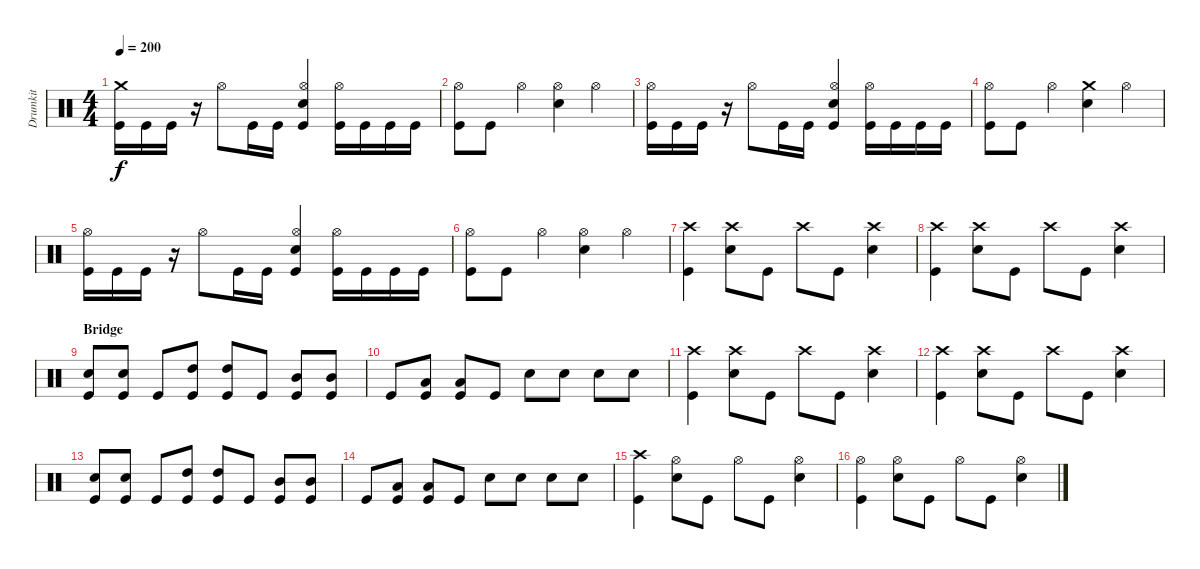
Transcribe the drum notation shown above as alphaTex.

\track ("Drumkit" "Drumkit") {instrument percussion}
\staff {score}
\articulation defaults
\ts (4 4)
\tempo 200
\clef neutral
\ks c
("Crash medium (hit)" "Kick (hit)").16{dy f} "Kick (hit)".16 "Kick (hit)".16 r.16 "Hi-Hat (open)".8 "Kick (hit)".16 "Kick (hit)".16 ("Hi-Hat (open)" "Snare (hit) 2" "Kick (hit)").4 ("Kick (hit)" "Hi-Hat (open)").16 "Kick (hit)".16 "Kick (hit)".16 "Kick (hit)".16 |
("Hi-Hat (open)" "Kick (hit)").8 "Kick (hit)".8 "Hi-Hat (open)".4 ("Hi-Hat (open)" "Snare (hit) 2").4 "Hi-Hat (open)".4 |
("Kick (hit)" "Hi-Hat (open)").16 "Kick (hit)".16 "Kick (hit)".16 r.16 "Hi-Hat (open)".8 "Kick (hit)".16 "Kick (hit)".16 ("Hi-Hat (open)" "Snare (hit) 2" "Kick (hit)").4 ("Kick (hit)" "Hi-Hat (open)").16 "Kick (hit)".16 "Kick (hit)".16 "Kick (hit)".16 |
("Hi-Hat (open)" "Kick (hit)").8 "Kick (hit)".8 "Hi-Hat (open)".4 ("Snare (hit) 2" "Crash medium (hit)").4 "Hi-Hat (open)".4 |
("Kick (hit)" "Hi-Hat (open)").16 "Kick (hit)".16 "Kick (hit)".16 r.16 "Hi-Hat (open)".8 "Kick (hit)".16 "Kick (hit)".16 ("Hi-Hat (open)" "Snare (hit) 2" "Kick (hit)").4 ("Kick (hit)" "Hi-Hat (open)").16 "Kick (hit)".16 "Kick (hit)".16 "Kick (hit)".16 |
("Hi-Hat (open)" "Kick (hit)").8 "Kick (hit)".8 "Hi-Hat (open)".4 ("Hi-Hat (open)" "Snare (hit) 2").4 "Hi-Hat (open)".4 |
("Kick (hit)" "Crash high (hit)").4 ("Snare (hit) 2" "Crash high (hit)").8 "Kick (hit)".8 "Crash high (hit)".8 "Kick (hit)".8 ("Snare (hit) 2" "Crash high (hit)").4 |
("Kick (hit)" "Crash high (hit)").4 ("Snare (hit) 2" "Crash high (hit)").8 "Kick (hit)".8 "Crash high (hit)".8 "Kick (hit)".8 ("Snare (hit) 2" "Crash high (hit)").4 |
\section ("" "Bridge")
("Kick (hit)" "Snare (hit) 2").8 ("Kick (hit)" "Snare (hit) 2").8 "Kick (hit)".8 ("Kick (hit)" "High Tom (hit)").8 ("Kick (hit)" "High Tom (hit)").8 "Kick (hit)".8 ("Kick (hit)" "Mid Tom (hit)").8 ("Kick (hit)" "Mid Tom (hit)").8 |
"Kick (hit)".8 ("Kick (hit)" "Low Tom (hit)").8 ("Kick (hit)" "Low Tom (hit)").8 "Kick (hit)".8 "Snare (hit) 2".8 "Snare (hit) 2".8 "Snare (hit) 2".8 "Snare (hit) 2".8 |
("Kick (hit)" "Crash high (hit)").4 ("Snare (hit) 2" "Crash high (hit)").8 "Kick (hit)".8 "Crash high (hit)".8 "Kick (hit)".8 ("Snare (hit) 2" "Crash high (hit)").4 |
("Kick (hit)" "Crash high (hit)").4 ("Snare (hit) 2" "Crash high (hit)").8 "Kick (hit)".8 "Crash high (hit)".8 "Kick (hit)".8 ("Snare (hit) 2" "Crash high (hit)").4 |
("Kick (hit)" "Snare (hit) 2").8 ("Kick (hit)" "Snare (hit) 2").8 "Kick (hit)".8 ("Kick (hit)" "High Tom (hit)").8 ("Kick (hit)" "High Tom (hit)").8 "Kick (hit)".8 ("Kick (hit)" "Mid Tom (hit)").8 ("Kick (hit)" "Mid Tom (hit)").8 |
"Kick (hit)".8 ("Kick (hit)" "Low Tom (hit)").8 ("Kick (hit)" "Low Tom (hit)").8 "Kick (hit)".8 "Snare (hit) 2".8 "Snare (hit) 2".8 "Snare (hit) 2".8 "Snare (hit) 2".8 |
("Kick (hit)" "Crash high (hit)").4 ("Snare (hit) 2" "Hi-Hat (open)").8 "Kick (hit)".8 "Hi-Hat (open)".8 "Kick (hit)".8 ("Snare (hit) 2" "Hi-Hat (open)").4 |
("Kick (hit)" "Hi-Hat (open)").4 ("Snare (hit) 2" "Hi-Hat (open)").8 "Kick (hit)".8 "Hi-Hat (open)".8 "Kick (hit)".8 ("Snare (hit) 2" "Hi-Hat (open)").4
